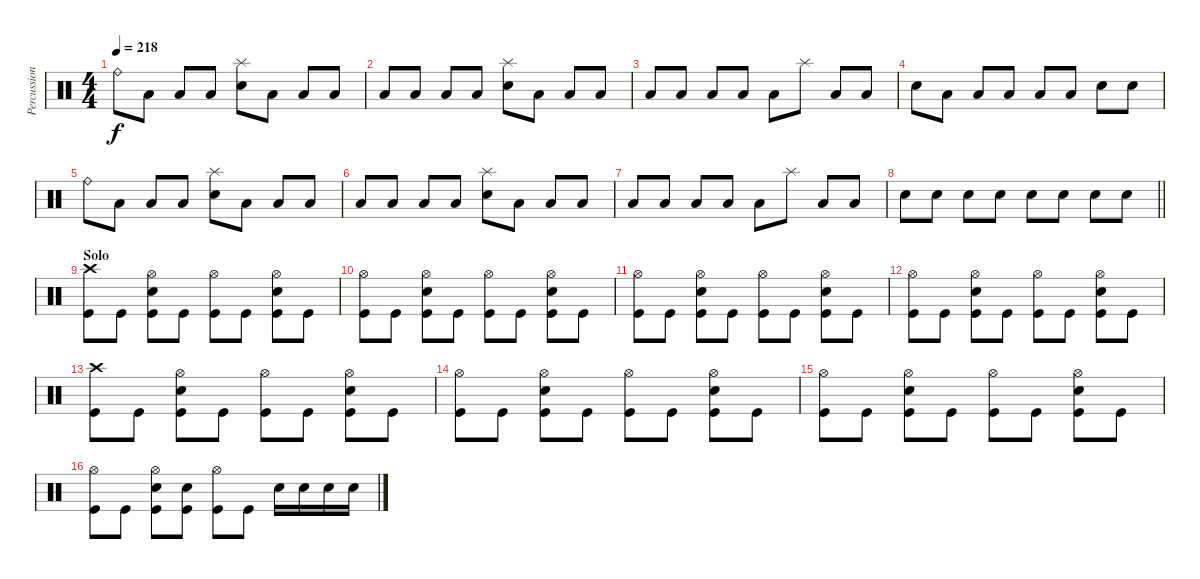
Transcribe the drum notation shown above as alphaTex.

\track ("Percussion" "Percussion") {instrument percussion}
\staff {score}
\articulation defaults
\ts (4 4)
\tempo 218
\clef neutral
\ks c "Ride (bell)".8{dy f} "Low Floor Tom (hit)".8 "Low Tom (hit)".8 "Low Tom (hit)".8
("Splash (hit)" "Electric Snare (hit)").8 "Low Floor Tom (hit)".8 "Low Tom (hit)".8 "Low Floor Tom (hit)".8 |
"Low Tom (hit)".8 "Low Floor Tom (hit)".8 "Low Tom (hit)".8 "Low Tom (hit)".8 ("Splash (hit)" "Electric Snare (hit)").8 "Low Floor Tom (hit)".8 "Low Tom (hit)".8 "Low Floor Tom (hit)".8 |
"Low Tom (hit)".8 "Low Floor Tom (hit)".8 "Low Tom (hit)".8 "Low Tom (hit)".8 "Low Tom (hit)".8 "Splash (hit)".8 "Low Tom (hit)".8 "Low Floor Tom (hit)".8 |
"Electric Snare (hit)".8 "Low Floor Tom (hit)".8 "Low Tom (hit)".8 "Low Tom (hit)".8 "Low Tom (hit)".8 "Low Floor Tom (hit)".8 "Electric Snare (hit)".8 "Electric Snare (hit)".8 |
"Ride (bell)".8 "Low Floor Tom (hit)".8 "Low Tom (hit)".8 "Low Tom (hit)".8 ("Splash (hit)" "Electric Snare (hit)").8 "Low Floor Tom (hit)".8 "Low Tom (hit)".8 "Low Floor Tom (hit)".8 |
"Low Tom (hit)".8 "Low Floor Tom (hit)".8 "Low Tom (hit)".8 "Low Tom (hit)".8 ("Splash (hit)" "Electric Snare (hit)").8 "Low Floor Tom (hit)".8 "Low Tom (hit)".8 "Low Floor Tom (hit)".8 |
"Low Tom (hit)".8 "Low Floor Tom (hit)".8 "Low Tom (hit)".8 "Low Tom (hit)".8 "Low Tom (hit)".8 "Splash (hit)".8 "Low Tom (hit)".8 "Low Floor Tom (hit)".8 |
\barLineRight lightlight "Electric Snare (hit)".8 "Electric Snare (hit)".8 "Electric Snare (hit)".8 "Electric Snare (hit)".8 "Electric Snare (hit)".8 "Electric Snare (hit)".8 "Electric Snare (hit)".8 "Electric Snare (hit)".8
|
\section ("" "Solo")
("Crash high (hit)" "Kick (hit)").8 "Kick (hit)".8 ("Hi-Hat (open)" "Electric Snare (hit)" "Kick (hit)").8 "Kick (hit)".8 ("Hi-Hat (open)" "Kick (hit)").8 "Kick (hit)".8 ("Hi-Hat (open)" "Electric Snare (hit)" "Kick (hit)").8 "Kick (hit)".8 |
("Hi-Hat (open)" "Kick (hit)").8 "Kick (hit)".8 ("Hi-Hat (open)" "Electric Snare (hit)" "Kick (hit)").8 "Kick (hit)".8 ("Hi-Hat (open)" "Kick (hit)").8 "Kick (hit)".8 ("Hi-Hat (open)" "Electric Snare (hit)" "Kick (hit)").8 "Kick (hit)".8 |
("Hi-Hat (open)" "Kick (hit)").8 "Kick (hit)".8 ("Hi-Hat (open)" "Electric Snare (hit)" "Kick (hit)").8 "Kick (hit)".8 ("Hi-Hat (open)" "Kick (hit)").8 "Kick (hit)".8 ("Hi-Hat (open)" "Electric Snare (hit)" "Kick (hit)").8 "Kick (hit)".8 |
("Hi-Hat (open)" "Kick (hit)").8 "Kick (hit)".8 ("Hi-Hat (open)" "Electric Snare (hit)" "Kick (hit)").8 "Kick (hit)".8 ("Hi-Hat (open)" "Kick (hit)").8 "Kick (hit)".8 ("Hi-Hat (open)" "Electric Snare (hit)" "Kick (hit)").8 "Kick (hit)".8 |
("Crash high (hit)" "Kick (hit)").8 "Kick (hit)".8 ("Hi-Hat (open)" "Electric Snare (hit)" "Kick (hit)").8 "Kick (hit)".8 ("Hi-Hat (open)" "Kick (hit)").8 "Kick (hit)".8 ("Hi-Hat (open)" "Electric Snare (hit)" "Kick (hit)").8 "Kick (hit)".8 |
("Hi-Hat (open)" "Kick (hit)").8 "Kick (hit)".8 ("Hi-Hat (open)" "Electric Snare (hit)" "Kick (hit)").8 "Kick (hit)".8 ("Hi-Hat (open)" "Kick (hit)").8 "Kick (hit)".8 ("Hi-Hat (open)" "Electric Snare (hit)" "Kick (hit)").8 "Kick (hit)".8 |
("Hi-Hat (open)" "Kick (hit)").8 "Kick (hit)".8 ("Hi-Hat (open)" "Electric Snare (hit)" "Kick (hit)").8 "Kick (hit)".8 ("Hi-Hat (open)" "Kick (hit)").8 "Kick (hit)".8 ("Hi-Hat (open)" "Electric Snare (hit)" "Kick (hit)").8 "Kick (hit)".8 |
("Hi-Hat (open)" "Kick (hit)").8 "Kick (hit)".8 ("Hi-Hat (open)" "Electric Snare (hit)" "Kick (hit)").8 ("Electric Snare (hit)" "Kick (hit)").8 ("Hi-Hat (open)" "Kick (hit)").8 "Kick (hit)".8 "Electric Snare (hit)".16 "Electric Snare (hit)".16 "Electric Snare (hit)".16 "Electric Snare (hit)".16
